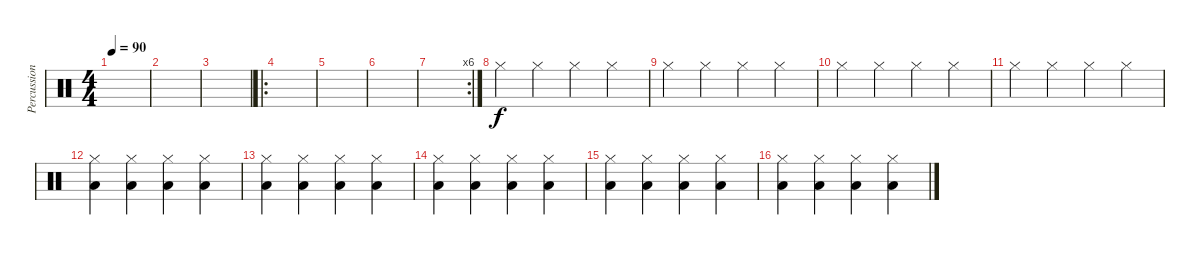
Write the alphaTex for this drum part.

\track ("Percussions" "Percussion") {instrument percussion}
\staff {score}
\articulation defaults
\ts (4 4)
\tempo 90
\clef neutral
\ks c
|
|
|
\ro
|
|
|
\rc 6
|
"Hi-Hat (closed)".4 "Hi-Hat (closed)".4 "Hi-Hat (closed)".4 "Hi-Hat (closed)".4 |
"Hi-Hat (closed)".4 "Hi-Hat (closed)".4 "Hi-Hat (closed)".4 "Hi-Hat (closed)".4 |
"Hi-Hat (closed)".4 "Hi-Hat (closed)".4 "Hi-Hat (closed)".4 "Hi-Hat (closed)".4 |
"Hi-Hat (closed)".4 "Hi-Hat (closed)".4 "Hi-Hat (closed)".4 "Hi-Hat (closed)".4 |
("Hi-Hat (closed)" "Low Floor Tom (hit)").4 ("Hi-Hat (closed)" "Low Floor Tom (hit)").4 ("Hi-Hat (closed)" "Low Floor Tom (hit)").4 ("Hi-Hat (closed)" "Low Floor Tom (hit)").4 |
("Hi-Hat (closed)" "Low Floor Tom (hit)").4 ("Hi-Hat (closed)" "Low Floor Tom (hit)").4 ("Hi-Hat (closed)" "Low Floor Tom (hit)").4 ("Hi-Hat (closed)" "Low Floor Tom (hit)").4 |
("Hi-Hat (closed)" "Low Floor Tom (hit)").4 ("Hi-Hat (closed)" "Low Floor Tom (hit)").4 ("Hi-Hat (closed)" "Low Floor Tom (hit)").4 ("Hi-Hat (closed)" "Low Floor Tom (hit)").4 |
("Hi-Hat (closed)" "Low Floor Tom (hit)").4 ("Hi-Hat (closed)" "Low Floor Tom (hit)").4 ("Hi-Hat (closed)" "Low Floor Tom (hit)").4 ("Hi-Hat (closed)" "Low Floor Tom (hit)").4 |
("Hi-Hat (closed)" "Low Floor Tom (hit)").4 ("Hi-Hat (closed)" "Low Floor Tom (hit)").4 ("Hi-Hat (closed)" "Low Floor Tom (hit)").4 ("Hi-Hat (closed)" "Low Floor Tom (hit)").4
